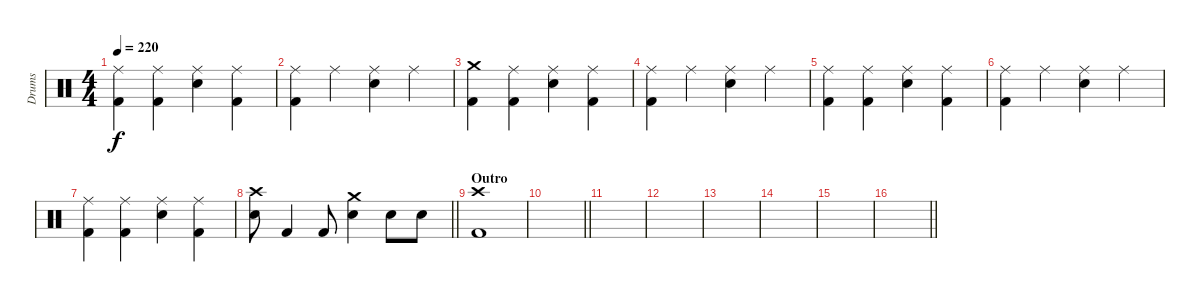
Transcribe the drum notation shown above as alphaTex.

\track ("Drums" "Drums") {instrument percussion}
\staff {score}
\articulation defaults
\ts (4 4)
\tempo 220
\clef neutral
\ks c
("Ride (middle)" "Kick (hit) 2").4{dy f} ("Ride (middle)" "Kick (hit) 2").4 ("Ride (middle)" "Electric Snare (hit)").4 ("Ride (middle)" "Kick (hit) 2").4 |
("Ride (middle)" "Kick (hit) 2").4 "Ride (middle)".4 ("Ride (middle)" "Electric Snare (hit)").4 "Ride (middle)".4 |
("Crash medium (hit)" "Kick (hit) 2").4 ("Ride (middle)" "Kick (hit) 2").4 ("Ride (middle)" "Electric Snare (hit)").4 ("Ride (middle)" "Kick (hit) 2").4 |
("Ride (middle)" "Kick (hit) 2").4 "Ride (middle)".4 ("Ride (middle)" "Electric Snare (hit)").4 "Ride (middle)".4 |
("Ride (middle)" "Kick (hit) 2").4 ("Ride (middle)" "Kick (hit) 2").4 ("Ride (middle)" "Electric Snare (hit)").4 ("Ride (middle)" "Kick (hit) 2").4 |
("Ride (middle)" "Kick (hit) 2").4 "Ride (middle)".4 ("Ride (middle)" "Electric Snare (hit)").4 "Ride (middle)".4 |
("Ride (middle)" "Kick (hit) 2").4 ("Ride (middle)" "Kick (hit) 2").4 ("Ride (middle)" "Electric Snare (hit)").4 ("Ride (middle)" "Kick (hit) 2").4 |
\barLineRight lightlight
("Crash high (hit)" "Electric Snare (hit)").8 "Kick (hit) 2".4 "Kick (hit) 2".8 ("Crash medium (hit)" "Electric Snare (hit)").4 "Electric Snare (hit)".8 "Electric Snare (hit)".8 |
\section ("" "Outro")
("Crash high (hit)" "Kick (hit) 2").1 |
\barLineRight lightlight
|
|
|
|
|
|
\barLineRight lightlight
